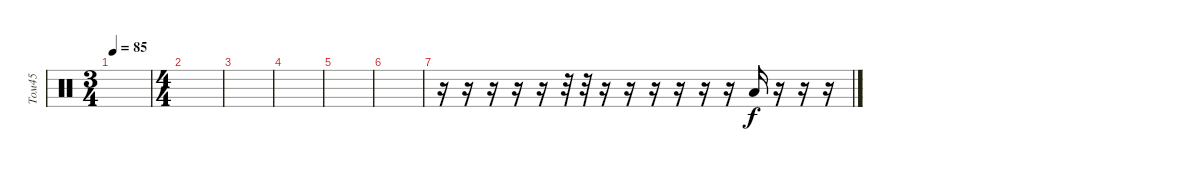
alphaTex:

\track ("Том45" "Том45") {instrument percussion}
\staff {score}
\articulation defaults
\ts (3 4)
\tempo 85
\clef neutral
\ks c
|
\ts (4 4)
|
|
|
|
|
r.16 r.16 r.16 r.16 r.16 r.32 r.32 r.16 r.16 r.16 r.16 r.16 r.16 "Low Tom (hit)".16 r.16 r.16 r.16
